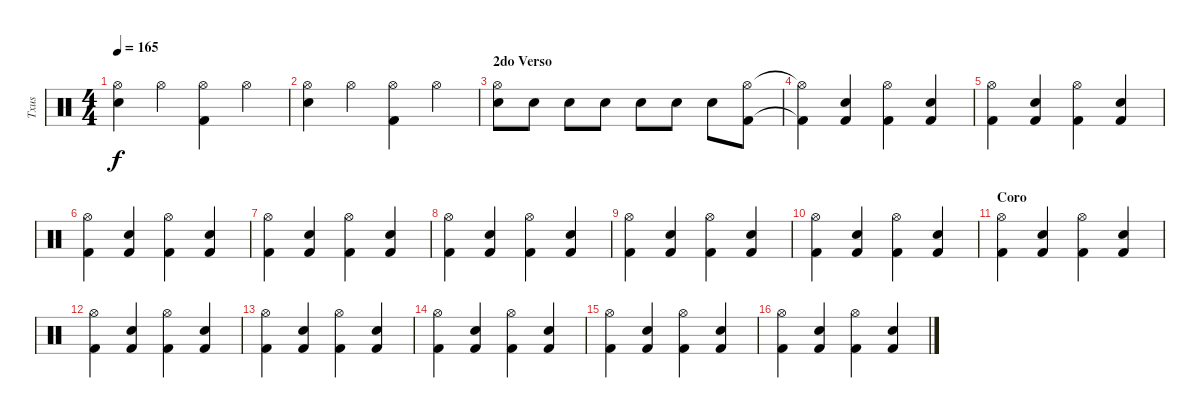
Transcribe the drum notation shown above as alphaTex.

\track ("Txus" "Txus") {instrument percussion}
\staff {score}
\articulation defaults
\ts (4 4)
\tempo 165
\clef neutral
\ks c
("Snare (hit) 2" "Hi-Hat (open)").4{dy f} "Hi-Hat (open)".4 ("Hi-Hat (open)" "Kick (hit) 2").4 "Hi-Hat (open)".4 |
("Snare (hit) 2" "Hi-Hat (open)").4 "Hi-Hat (open)".4 ("Hi-Hat (open)" "Kick (hit) 2").4 "Hi-Hat (open)".4 |
\section ("" "2do Verso")
("Snare (hit) 2" "Hi-Hat (open)").8 "Snare (hit) 2".8 "Snare (hit) 2".8 "Snare (hit) 2".8 "Snare (hit) 2".8 "Snare (hit) 2".8 "Snare (hit) 2".8 ("Hi-Hat (open)" "Kick (hit) 2").8 |
("Hi-Hat (open)"{t} "Kick (hit) 2"{t}).4 ("Snare (hit) 2" "Kick (hit) 2").4 ("Hi-Hat (open)" "Kick (hit) 2").4 ("Snare (hit) 2" "Kick (hit) 2").4 |
("Hi-Hat (open)" "Kick (hit) 2").4 ("Snare (hit) 2" "Kick (hit) 2").4 ("Hi-Hat (open)" "Kick (hit) 2").4 ("Snare (hit) 2" "Kick (hit) 2").4 |
("Hi-Hat (open)" "Kick (hit) 2").4 ("Snare (hit) 2" "Kick (hit) 2").4 ("Hi-Hat (open)" "Kick (hit) 2").4 ("Snare (hit) 2" "Kick (hit) 2").4 |
("Hi-Hat (open)" "Kick (hit) 2").4 ("Snare (hit) 2" "Kick (hit) 2").4 ("Hi-Hat (open)" "Kick (hit) 2").4 ("Snare (hit) 2" "Kick (hit) 2").4 |
("Hi-Hat (open)" "Kick (hit) 2").4 ("Snare (hit) 2" "Kick (hit) 2").4 ("Hi-Hat (open)" "Kick (hit) 2").4 ("Snare (hit) 2" "Kick (hit) 2").4 |
("Hi-Hat (open)" "Kick (hit) 2").4 ("Snare (hit) 2" "Kick (hit) 2").4 ("Hi-Hat (open)" "Kick (hit) 2").4 ("Snare (hit) 2" "Kick (hit) 2").4 |
("Hi-Hat (open)" "Kick (hit) 2").4 ("Snare (hit) 2" "Kick (hit) 2").4 ("Hi-Hat (open)" "Kick (hit) 2").4 ("Snare (hit) 2" "Kick (hit) 2").4 |
\section ("" "Coro")
("Hi-Hat (open)" "Kick (hit) 2").4 ("Snare (hit) 2" "Kick (hit) 2").4 ("Hi-Hat (open)" "Kick (hit) 2").4 ("Snare (hit) 2" "Kick (hit) 2").4 |
("Hi-Hat (open)" "Kick (hit) 2").4 ("Snare (hit) 2" "Kick (hit) 2").4 ("Hi-Hat (open)" "Kick (hit) 2").4 ("Snare (hit) 2" "Kick (hit) 2").4 |
("Hi-Hat (open)" "Kick (hit) 2").4 ("Snare (hit) 2" "Kick (hit) 2").4 ("Hi-Hat (open)" "Kick (hit) 2").4 ("Snare (hit) 2" "Kick (hit) 2").4 |
("Hi-Hat (open)" "Kick (hit) 2").4 ("Snare (hit) 2" "Kick (hit) 2").4 ("Hi-Hat (open)" "Kick (hit) 2").4 ("Snare (hit) 2" "Kick (hit) 2").4 |
("Hi-Hat (open)" "Kick (hit) 2").4 ("Snare (hit) 2" "Kick (hit) 2").4 ("Hi-Hat (open)" "Kick (hit) 2").4 ("Snare (hit) 2" "Kick (hit) 2").4 |
("Hi-Hat (open)" "Kick (hit) 2").4 ("Snare (hit) 2" "Kick (hit) 2").4 ("Hi-Hat (open)" "Kick (hit) 2").4 ("Snare (hit) 2" "Kick (hit) 2").4
